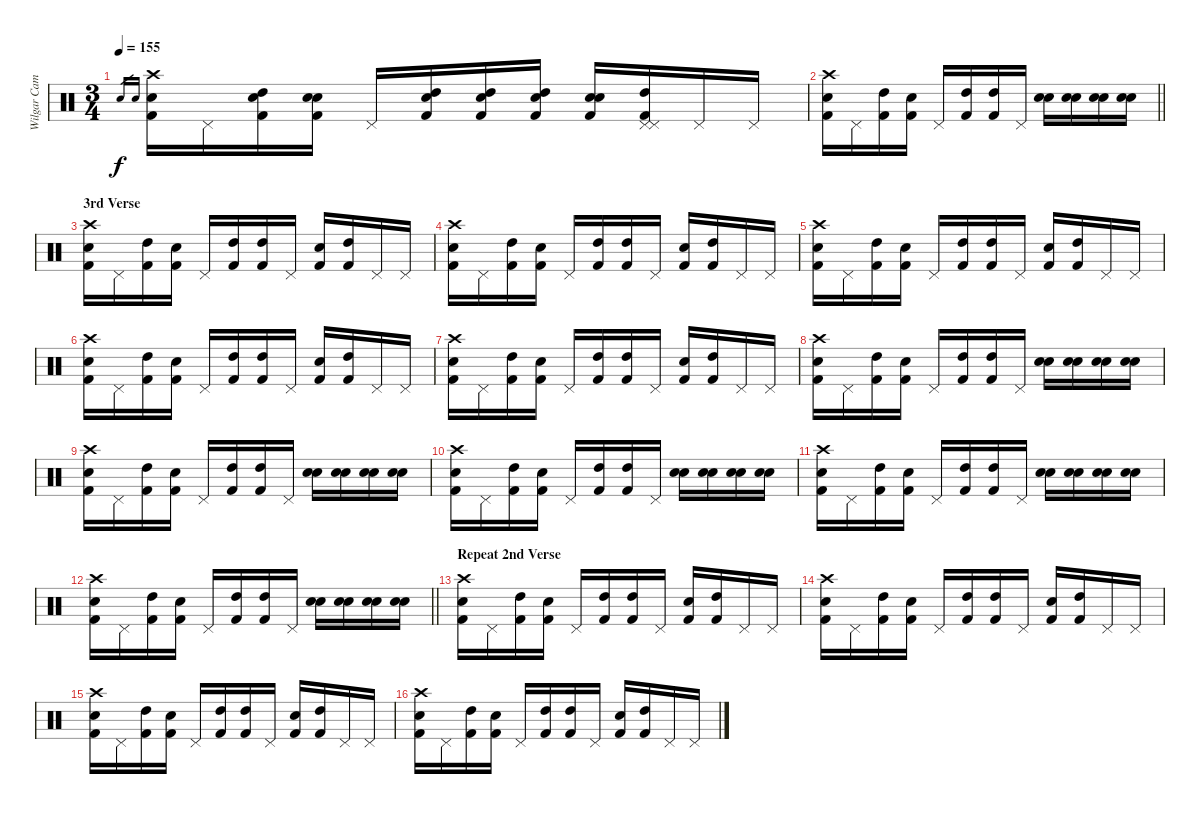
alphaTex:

\track ("Wilgar Campbell" "Wilgar Cam") {instrument percussion}
\staff {score}
\articulation defaults
\ts (3 4)
\tempo 155
\clef neutral
\ks c "Electric Snare (hit)".16{gr dy f} "Electric Snare (hit)".16{gr}
("Kick (hit) 2" "Snare (hit) 2" "Crash high (hit)").16 "Pedal Hi-Hat (hit)".16 ("Electric Snare (hit)" "Kick (hit) 2" "High Tom (hit)").16 ("Electric Snare (hit)" "Kick (hit) 2" "Snare (hit) 2").16 "Pedal Hi-Hat (hit)".16 ("Electric Snare (hit)" "High Tom (hit)" "Kick (hit) 2").16 ("Electric Snare (hit)" "High Tom (hit)" "Kick (hit) 2").16 ("Electric Snare (hit)" "High Tom (hit)" "Kick (hit) 2").16 ("Electric Snare (hit)" "Electric Snare (hit)" "Kick (hit) 2").16 ("Kick (hit) 2" "Pedal Hi-Hat (hit)" "High Tom (hit)" "Pedal Hi-Hat (hit)").16 "Pedal Hi-Hat (hit)".16 "Pedal Hi-Hat (hit)".16 |
\barLineRight lightlight
("Kick (hit) 2" "Snare (hit) 2" "Crash high (hit)").16 "Pedal Hi-Hat (hit)".16 ("Kick (hit) 2" "High Tom (hit)").16 ("Kick (hit) 2" "Snare (hit) 2").16 "Pedal Hi-Hat (hit)".16 ("High Tom (hit)" "Kick (hit) 2").16 ("High Tom (hit)" "Kick (hit) 2").16 "Pedal Hi-Hat (hit)".16 ("Electric Snare (hit)" "Electric Snare (hit)").16 ("Electric Snare (hit)" "Electric Snare (hit)").16 ("Electric Snare (hit)" "Electric Snare (hit)").16 ("Electric Snare (hit)" "Electric Snare (hit)").16 |
\section ("" "3rd Verse")
("Kick (hit) 2" "Snare (hit) 2" "Crash high (hit)").16 "Pedal Hi-Hat (hit)".16 ("Kick (hit) 2" "High Tom (hit)").16 ("Kick (hit) 2" "Snare (hit) 2").16 "Pedal Hi-Hat (hit)".16 ("High Tom (hit)" "Kick (hit) 2").16 ("High Tom (hit)" "Kick (hit) 2").16 "Pedal Hi-Hat (hit)".16 ("Electric Snare (hit)" "Kick (hit) 2").16 ("High Tom (hit)" "Kick (hit) 2").16 "Pedal Hi-Hat (hit)".16 "Pedal Hi-Hat (hit)".16 |
("Kick (hit) 2" "Snare (hit) 2" "Crash high (hit)").16 "Pedal Hi-Hat (hit)".16 ("Kick (hit) 2" "High Tom (hit)").16 ("Kick (hit) 2" "Snare (hit) 2").16 "Pedal Hi-Hat (hit)".16 ("High Tom (hit)" "Kick (hit) 2").16 ("High Tom (hit)" "Kick (hit) 2").16 "Pedal Hi-Hat (hit)".16 ("Electric Snare (hit)" "Kick (hit) 2").16 ("High Tom (hit)" "Kick (hit) 2").16 "Pedal Hi-Hat (hit)".16 "Pedal Hi-Hat (hit)".16 |
("Kick (hit) 2" "Snare (hit) 2" "Crash high (hit)").16 "Pedal Hi-Hat (hit)".16 ("Kick (hit) 2" "High Tom (hit)").16 ("Kick (hit) 2" "Snare (hit) 2").16 "Pedal Hi-Hat (hit)".16 ("High Tom (hit)" "Kick (hit) 2").16 ("High Tom (hit)" "Kick (hit) 2").16 "Pedal Hi-Hat (hit)".16 ("Electric Snare (hit)" "Kick (hit) 2").16 ("High Tom (hit)" "Kick (hit) 2").16 "Pedal Hi-Hat (hit)".16 "Pedal Hi-Hat (hit)".16 |
("Kick (hit) 2" "Snare (hit) 2" "Crash high (hit)").16 "Pedal Hi-Hat (hit)".16 ("Kick (hit) 2" "High Tom (hit)").16 ("Kick (hit) 2" "Snare (hit) 2").16 "Pedal Hi-Hat (hit)".16 ("High Tom (hit)" "Kick (hit) 2").16 ("High Tom (hit)" "Kick (hit) 2").16 "Pedal Hi-Hat (hit)".16 ("Electric Snare (hit)" "Kick (hit) 2").16 ("High Tom (hit)" "Kick (hit) 2").16 "Pedal Hi-Hat (hit)".16 "Pedal Hi-Hat (hit)".16 |
("Kick (hit) 2" "Snare (hit) 2" "Crash high (hit)").16 "Pedal Hi-Hat (hit)".16 ("Kick (hit) 2" "High Tom (hit)").16 ("Kick (hit) 2" "Snare (hit) 2").16 "Pedal Hi-Hat (hit)".16 ("High Tom (hit)" "Kick (hit) 2").16 ("High Tom (hit)" "Kick (hit) 2").16 "Pedal Hi-Hat (hit)".16 ("Electric Snare (hit)" "Kick (hit) 2").16 ("High Tom (hit)" "Kick (hit) 2").16 "Pedal Hi-Hat (hit)".16 "Pedal Hi-Hat (hit)".16 |
("Kick (hit) 2" "Snare (hit) 2" "Crash high (hit)").16 "Pedal Hi-Hat (hit)".16 ("Kick (hit) 2" "High Tom (hit)").16 ("Kick (hit) 2" "Snare (hit) 2").16 "Pedal Hi-Hat (hit)".16 ("High Tom (hit)" "Kick (hit) 2").16 ("High Tom (hit)" "Kick (hit) 2").16 "Pedal Hi-Hat (hit)".16 ("Electric Snare (hit)" "Electric Snare (hit)").16 ("Electric Snare (hit)" "Electric Snare (hit)").16 ("Electric Snare (hit)" "Electric Snare (hit)").16 ("Electric Snare (hit)" "Electric Snare (hit)").16 |
("Kick (hit) 2" "Snare (hit) 2" "Crash high (hit)").16 "Pedal Hi-Hat (hit)".16 ("Kick (hit) 2" "High Tom (hit)").16 ("Kick (hit) 2" "Snare (hit) 2").16 "Pedal Hi-Hat (hit)".16 ("High Tom (hit)" "Kick (hit) 2").16 ("High Tom (hit)" "Kick (hit) 2").16 "Pedal Hi-Hat (hit)".16 ("Electric Snare (hit)" "Electric Snare (hit)").16 ("Electric Snare (hit)" "Electric Snare (hit)").16 ("Electric Snare (hit)" "Electric Snare (hit)").16 ("Electric Snare (hit)" "Electric Snare (hit)").16 |
("Kick (hit) 2" "Snare (hit) 2" "Crash high (hit)").16 "Pedal Hi-Hat (hit)".16 ("Kick (hit) 2" "High Tom (hit)").16 ("Kick (hit) 2" "Snare (hit) 2").16 "Pedal Hi-Hat (hit)".16 ("High Tom (hit)" "Kick (hit) 2").16 ("High Tom (hit)" "Kick (hit) 2").16 "Pedal Hi-Hat (hit)".16 ("Electric Snare (hit)" "Electric Snare (hit)").16 ("Electric Snare (hit)" "Electric Snare (hit)").16 ("Electric Snare (hit)" "Electric Snare (hit)").16 ("Electric Snare (hit)" "Electric Snare (hit)").16 |
("Kick (hit) 2" "Snare (hit) 2" "Crash high (hit)").16 "Pedal Hi-Hat (hit)".16 ("Kick (hit) 2" "High Tom (hit)").16 ("Kick (hit) 2" "Snare (hit) 2").16 "Pedal Hi-Hat (hit)".16 ("High Tom (hit)" "Kick (hit) 2").16 ("High Tom (hit)" "Kick (hit) 2").16 "Pedal Hi-Hat (hit)".16 ("Electric Snare (hit)" "Electric Snare (hit)").16 ("Electric Snare (hit)" "Electric Snare (hit)").16 ("Electric Snare (hit)" "Electric Snare (hit)").16 ("Electric Snare (hit)" "Electric Snare (hit)").16 |
\barLineRight lightlight
("Kick (hit) 2" "Snare (hit) 2" "Crash high (hit)").16 "Pedal Hi-Hat (hit)".16 ("Kick (hit) 2" "High Tom (hit)").16 ("Kick (hit) 2" "Snare (hit) 2").16 "Pedal Hi-Hat (hit)".16 ("High Tom (hit)" "Kick (hit) 2").16 ("High Tom (hit)" "Kick (hit) 2").16 "Pedal Hi-Hat (hit)".16 ("Electric Snare (hit)" "Electric Snare (hit)").16 ("Electric Snare (hit)" "Electric Snare (hit)").16 ("Electric Snare (hit)" "Electric Snare (hit)").16 ("Electric Snare (hit)" "Electric Snare (hit)").16 |
\section ("" "Repeat 2nd Verse")
("Kick (hit) 2" "Snare (hit) 2" "Crash high (hit)").16 "Pedal Hi-Hat (hit)".16 ("Kick (hit) 2" "High Tom (hit)").16 ("Kick (hit) 2" "Snare (hit) 2").16 "Pedal Hi-Hat (hit)".16 ("High Tom (hit)" "Kick (hit) 2").16 ("High Tom (hit)" "Kick (hit) 2").16 "Pedal Hi-Hat (hit)".16 ("Electric Snare (hit)" "Kick (hit) 2").16 ("High Tom (hit)" "Kick (hit) 2").16 "Pedal Hi-Hat (hit)".16 "Pedal Hi-Hat (hit)".16 |
("Kick (hit) 2" "Snare (hit) 2" "Crash high (hit)").16 "Pedal Hi-Hat (hit)".16 ("Kick (hit) 2" "High Tom (hit)").16 ("Kick (hit) 2" "Snare (hit) 2").16 "Pedal Hi-Hat (hit)".16 ("High Tom (hit)" "Kick (hit) 2").16 ("High Tom (hit)" "Kick (hit) 2").16 "Pedal Hi-Hat (hit)".16 ("Electric Snare (hit)" "Kick (hit) 2").16 ("High Tom (hit)" "Kick (hit) 2").16 "Pedal Hi-Hat (hit)".16 "Pedal Hi-Hat (hit)".16 |
("Kick (hit) 2" "Snare (hit) 2" "Crash high (hit)").16 "Pedal Hi-Hat (hit)".16 ("Kick (hit) 2" "High Tom (hit)").16 ("Kick (hit) 2" "Snare (hit) 2").16 "Pedal Hi-Hat (hit)".16 ("High Tom (hit)" "Kick (hit) 2").16 ("High Tom (hit)" "Kick (hit) 2").16 "Pedal Hi-Hat (hit)".16 ("Electric Snare (hit)" "Kick (hit) 2").16 ("High Tom (hit)" "Kick (hit) 2").16 "Pedal Hi-Hat (hit)".16 "Pedal Hi-Hat (hit)".16 |
("Kick (hit) 2" "Snare (hit) 2" "Crash high (hit)").16 "Pedal Hi-Hat (hit)".16 ("Kick (hit) 2" "High Tom (hit)").16 ("Kick (hit) 2" "Snare (hit) 2").16 "Pedal Hi-Hat (hit)".16 ("High Tom (hit)" "Kick (hit) 2").16 ("High Tom (hit)" "Kick (hit) 2").16 "Pedal Hi-Hat (hit)".16 ("Electric Snare (hit)" "Kick (hit) 2").16 ("High Tom (hit)" "Kick (hit) 2").16 "Pedal Hi-Hat (hit)".16 "Pedal Hi-Hat (hit)".16
